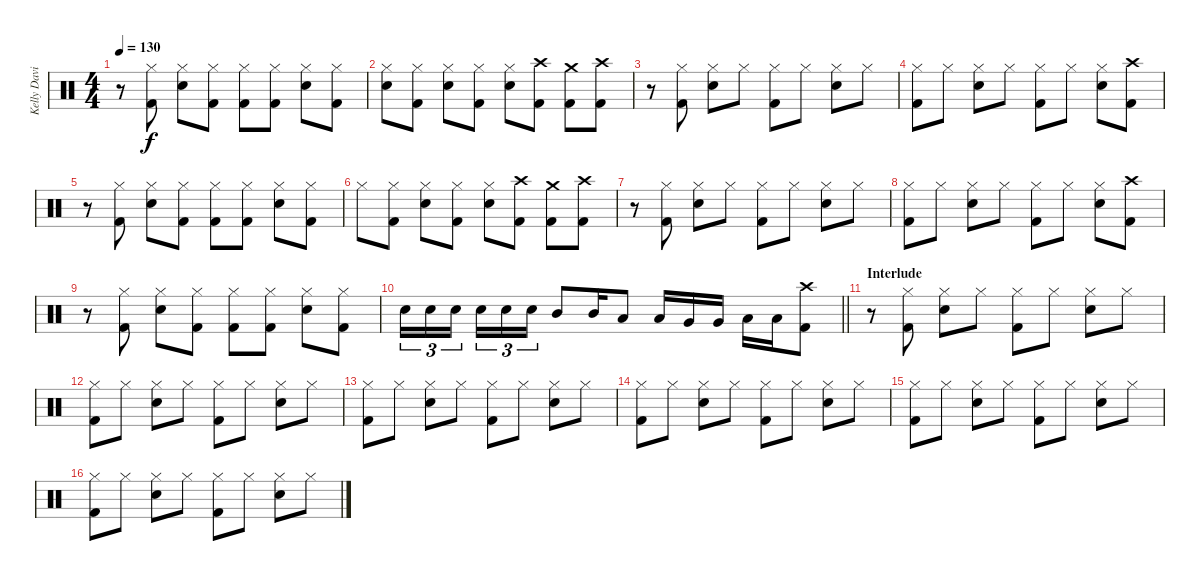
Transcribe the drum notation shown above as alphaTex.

\track ("Kelly David Smith" "Kelly Davi") {instrument percussion}
\staff {score}
\articulation defaults
\ts (4 4)
\tempo 130
\clef neutral
\ks c
r.8{dy f} ("Hi-Hat (closed)" "Kick (hit) 2").8 ("Hi-Hat (closed)" "Snare (hit) 2").8 ("Hi-Hat (closed)" "Kick (hit) 2").8 ("Hi-Hat (closed)" "Kick (hit) 2").8 ("Hi-Hat (closed)" "Kick (hit) 2").8 ("Hi-Hat (closed)" "Snare (hit) 2").8 ("Hi-Hat (closed)" "Kick (hit) 2").8 |
("Hi-Hat (closed)" "Snare (hit) 2").8 ("Hi-Hat (closed)" "Kick (hit) 2").8 ("Hi-Hat (closed)" "Snare (hit) 2").8 ("Hi-Hat (closed)" "Kick (hit) 2").8 ("Hi-Hat (closed)" "Snare (hit) 2").8 ("Crash high (hit)" "Kick (hit) 2").8 ("Crash medium (hit)" "Kick (hit) 2").8 ("Crash high (hit)" "Kick (hit) 2").8 |
r.8 ("Hi-Hat (closed)" "Kick (hit) 2").8 ("Hi-Hat (closed)" "Snare (hit) 2").8 "Hi-Hat (closed)".8 ("Hi-Hat (closed)" "Kick (hit) 2").8 "Hi-Hat (closed)".8 ("Hi-Hat (closed)" "Snare (hit) 2").8 "Hi-Hat (closed)".8 |
("Hi-Hat (closed)" "Kick (hit) 2").8 "Hi-Hat (closed)".8 ("Hi-Hat (closed)" "Snare (hit) 2").8 "Hi-Hat (closed)".8 ("Hi-Hat (closed)" "Kick (hit) 2").8 "Hi-Hat (closed)".8 ("Hi-Hat (closed)" "Snare (hit) 2").8 ("Crash high (hit)" "Kick (hit) 2").8 |
r.8 ("Hi-Hat (closed)" "Kick (hit) 2").8 ("Hi-Hat (closed)" "Snare (hit) 2").8 ("Hi-Hat (closed)" "Kick (hit) 2").8 ("Hi-Hat (closed)" "Kick (hit) 2").8 ("Hi-Hat (closed)" "Kick (hit) 2").8 ("Hi-Hat (closed)" "Snare (hit) 2").8 ("Hi-Hat (closed)" "Kick (hit) 2").8 |
"Hi-Hat (closed)".8 ("Hi-Hat (closed)" "Kick (hit) 2").8 ("Hi-Hat (closed)" "Snare (hit) 2").8 ("Hi-Hat (closed)" "Kick (hit) 2").8 ("Hi-Hat (closed)" "Snare (hit) 2").8 ("Crash high (hit)" "Kick (hit) 2").8 ("Crash medium (hit)" "Kick (hit) 2").8 ("Crash high (hit)" "Kick (hit) 2").8 |
r.8 ("Hi-Hat (closed)" "Kick (hit) 2").8 ("Hi-Hat (closed)" "Snare (hit) 2").8 "Hi-Hat (closed)".8 ("Hi-Hat (closed)" "Kick (hit) 2").8 "Hi-Hat (closed)".8 ("Hi-Hat (closed)" "Snare (hit) 2").8 "Hi-Hat (closed)".8 |
("Hi-Hat (closed)" "Kick (hit) 2").8 "Hi-Hat (closed)".8 ("Hi-Hat (closed)" "Snare (hit) 2").8 "Hi-Hat (closed)".8 ("Hi-Hat (closed)" "Kick (hit) 2").8 "Hi-Hat (closed)".8 ("Hi-Hat (closed)" "Snare (hit) 2").8 ("Crash high (hit)" "Kick (hit) 2").8 |
r.8 ("Hi-Hat (closed)" "Kick (hit) 2").8 ("Hi-Hat (closed)" "Snare (hit) 2").8 ("Hi-Hat (closed)" "Kick (hit) 2").8 ("Hi-Hat (closed)" "Kick (hit) 2").8 ("Hi-Hat (closed)" "Kick (hit) 2").8 ("Hi-Hat (closed)" "Snare (hit) 2").8 ("Hi-Hat (closed)" "Kick (hit) 2").8 |
\barLineRight lightlight "Snare (hit) 2".16{tu (3 2)} "Snare (hit) 2".16{tu (3 2)} "Snare (hit) 2".16{tu (3 2)} "Snare (hit) 2".16{tu (3 2)} "Snare (hit) 2".16{tu (3 2)} "Snare (hit) 2".16{tu (3 2)} "Mid Tom (hit)".8 "Mid Tom (hit)".16 "Low Tom (hit)".8 "Low Tom (hit)".16 "Very Low Tom (hit)".16 "Very Low Tom (hit)".16 "Low Floor Tom (hit)".16 "Low Floor Tom (hit)".16
("Crash high (hit)" "Kick (hit) 2").8 |
\section ("" "Interlude")
r.8 ("Hi-Hat (closed)" "Kick (hit) 2").8 ("Hi-Hat (closed)" "Snare (hit) 2").8 "Hi-Hat (closed)".8 ("Hi-Hat (closed)" "Kick (hit) 2").8 "Hi-Hat (closed)".8 ("Hi-Hat (closed)" "Snare (hit) 2").8 "Hi-Hat (closed)".8 |
("Hi-Hat (closed)" "Kick (hit) 2").8 "Hi-Hat (closed)".8 ("Hi-Hat (closed)" "Snare (hit) 2").8 "Hi-Hat (closed)".8 ("Hi-Hat (closed)" "Kick (hit) 2").8 "Hi-Hat (closed)".8 ("Hi-Hat (closed)" "Snare (hit) 2").8 "Hi-Hat (closed)".8 |
("Hi-Hat (closed)" "Kick (hit) 2").8 "Hi-Hat (closed)".8 ("Hi-Hat (closed)" "Snare (hit) 2").8 "Hi-Hat (closed)".8 ("Hi-Hat (closed)" "Kick (hit) 2").8 "Hi-Hat (closed)".8 ("Hi-Hat (closed)" "Snare (hit) 2").8 "Hi-Hat (closed)".8 |
("Hi-Hat (closed)" "Kick (hit) 2").8 "Hi-Hat (closed)".8 ("Hi-Hat (closed)" "Snare (hit) 2").8 "Hi-Hat (closed)".8 ("Hi-Hat (closed)" "Kick (hit) 2").8 "Hi-Hat (closed)".8 ("Hi-Hat (closed)" "Snare (hit) 2").8 "Hi-Hat (closed)".8 |
("Hi-Hat (closed)" "Kick (hit) 2").8 "Hi-Hat (closed)".8 ("Hi-Hat (closed)" "Snare (hit) 2").8 "Hi-Hat (closed)".8 ("Hi-Hat (closed)" "Kick (hit) 2").8 "Hi-Hat (closed)".8 ("Hi-Hat (closed)" "Snare (hit) 2").8 "Hi-Hat (closed)".8 |
("Hi-Hat (closed)" "Kick (hit) 2").8 "Hi-Hat (closed)".8 ("Hi-Hat (closed)" "Snare (hit) 2").8 "Hi-Hat (closed)".8 ("Hi-Hat (closed)" "Kick (hit) 2").8 "Hi-Hat (closed)".8 ("Hi-Hat (closed)" "Snare (hit) 2").8 "Hi-Hat (closed)".8
